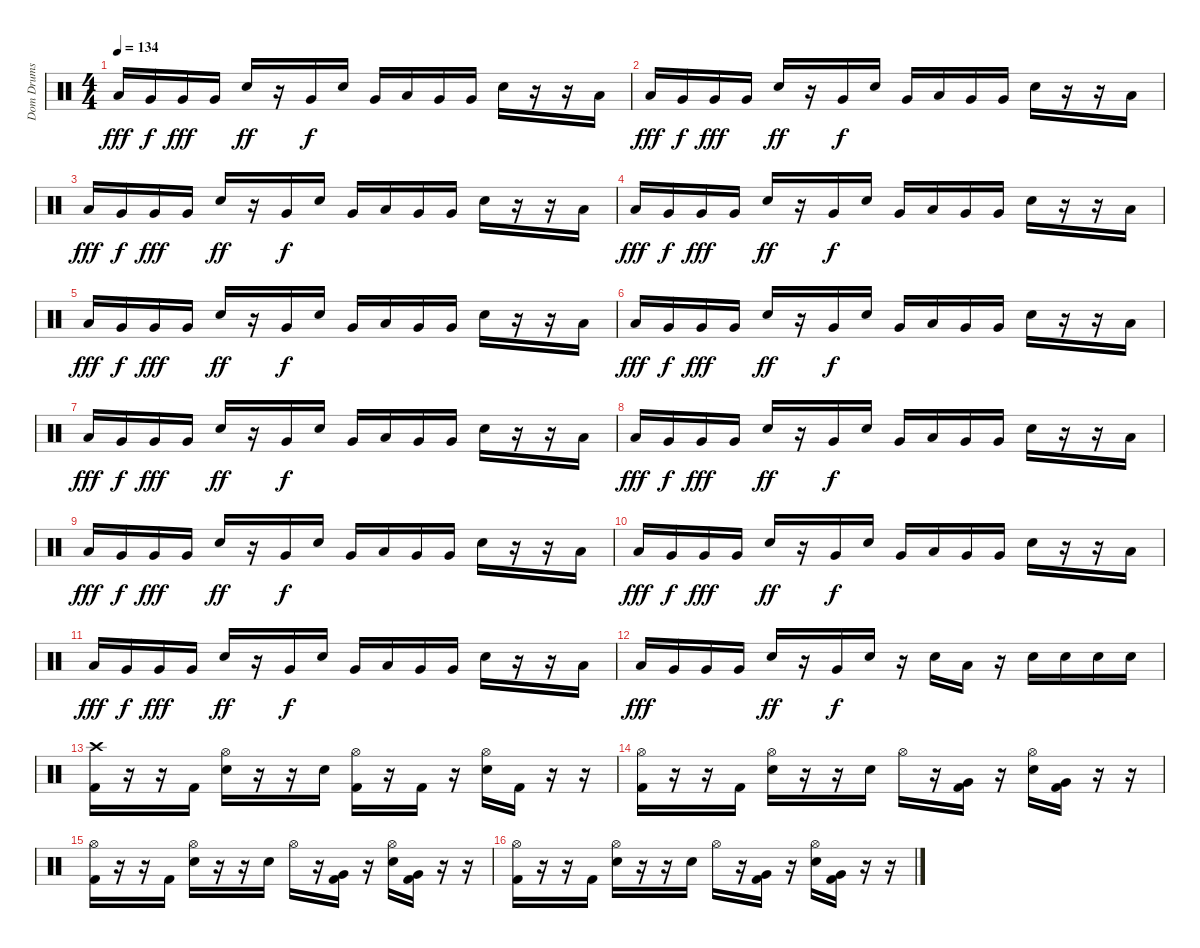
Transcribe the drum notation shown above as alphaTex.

\track ("Dom Drums" "Dom Drums") {instrument percussion}
\staff {score}
\articulation defaults
\ts (4 4)
\tempo 134
\clef neutral
\ks c "Low Tom (hit)".16{dy fff} "Very Low Tom (hit)".16{dy f} "Very Low Tom (hit)".16{dy fff} "Very Low Tom (hit)".16 "Electric Snare (hit)".16{dy ff}
r.16 "Very Low Tom (hit)".16{dy f} "Electric Snare (hit)".16 "Very Low Tom (hit)".16 "Low Tom (hit)".16 "Very Low Tom (hit)".16 "Very Low Tom (hit)".16 "Electric Snare (hit)".16 r.16 r.16 "Low Tom (hit)".16 |
"Low Tom (hit)".16{dy fff} "Very Low Tom (hit)".16{dy f} "Very Low Tom (hit)".16{dy fff} "Very Low Tom (hit)".16 "Electric Snare (hit)".16{dy ff} r.16 "Very Low Tom (hit)".16{dy f} "Electric Snare (hit)".16 "Very Low Tom (hit)".16 "Low Tom (hit)".16 "Very Low Tom (hit)".16 "Very Low Tom (hit)".16 "Electric Snare (hit)".16 r.16 r.16 "Low Tom (hit)".16 |
"Low Tom (hit)".16{dy fff} "Very Low Tom (hit)".16{dy f} "Very Low Tom (hit)".16{dy fff} "Very Low Tom (hit)".16 "Electric Snare (hit)".16{dy ff} r.16 "Very Low Tom (hit)".16{dy f} "Electric Snare (hit)".16 "Very Low Tom (hit)".16 "Low Tom (hit)".16 "Very Low Tom (hit)".16 "Very Low Tom (hit)".16 "Electric Snare (hit)".16 r.16 r.16 "Low Tom (hit)".16 |
"Low Tom (hit)".16{dy fff} "Very Low Tom (hit)".16{dy f} "Very Low Tom (hit)".16{dy fff} "Very Low Tom (hit)".16 "Electric Snare (hit)".16{dy ff} r.16 "Very Low Tom (hit)".16{dy f} "Electric Snare (hit)".16 "Very Low Tom (hit)".16 "Low Tom (hit)".16 "Very Low Tom (hit)".16 "Very Low Tom (hit)".16 "Electric Snare (hit)".16 r.16 r.16 "Low Tom (hit)".16 |
"Low Tom (hit)".16{dy fff} "Very Low Tom (hit)".16{dy f} "Very Low Tom (hit)".16{dy fff} "Very Low Tom (hit)".16 "Electric Snare (hit)".16{dy ff} r.16 "Very Low Tom (hit)".16{dy f} "Electric Snare (hit)".16 "Very Low Tom (hit)".16 "Low Tom (hit)".16 "Very Low Tom (hit)".16 "Very Low Tom (hit)".16 "Electric Snare (hit)".16 r.16 r.16 "Low Tom (hit)".16 |
"Low Tom (hit)".16{dy fff} "Very Low Tom (hit)".16{dy f} "Very Low Tom (hit)".16{dy fff} "Very Low Tom (hit)".16 "Electric Snare (hit)".16{dy ff} r.16 "Very Low Tom (hit)".16{dy f} "Electric Snare (hit)".16 "Very Low Tom (hit)".16 "Low Tom (hit)".16 "Very Low Tom (hit)".16 "Very Low Tom (hit)".16 "Electric Snare (hit)".16 r.16 r.16 "Low Tom (hit)".16 |
"Low Tom (hit)".16{dy fff} "Very Low Tom (hit)".16{dy f} "Very Low Tom (hit)".16{dy fff} "Very Low Tom (hit)".16 "Electric Snare (hit)".16{dy ff} r.16 "Very Low Tom (hit)".16{dy f} "Electric Snare (hit)".16 "Very Low Tom (hit)".16 "Low Tom (hit)".16 "Very Low Tom (hit)".16 "Very Low Tom (hit)".16 "Electric Snare (hit)".16 r.16 r.16 "Low Tom (hit)".16 |
"Low Tom (hit)".16{dy fff} "Very Low Tom (hit)".16{dy f} "Very Low Tom (hit)".16{dy fff} "Very Low Tom (hit)".16 "Electric Snare (hit)".16{dy ff} r.16 "Very Low Tom (hit)".16{dy f} "Electric Snare (hit)".16 "Very Low Tom (hit)".16 "Low Tom (hit)".16 "Very Low Tom (hit)".16 "Very Low Tom (hit)".16 "Electric Snare (hit)".16 r.16 r.16 "Low Tom (hit)".16 |
"Low Tom (hit)".16{dy fff} "Very Low Tom (hit)".16{dy f} "Very Low Tom (hit)".16{dy fff} "Very Low Tom (hit)".16 "Electric Snare (hit)".16{dy ff} r.16 "Very Low Tom (hit)".16{dy f} "Electric Snare (hit)".16 "Very Low Tom (hit)".16 "Low Tom (hit)".16 "Very Low Tom (hit)".16 "Very Low Tom (hit)".16 "Electric Snare (hit)".16 r.16 r.16 "Low Tom (hit)".16 |
"Low Tom (hit)".16{dy fff} "Very Low Tom (hit)".16{dy f} "Very Low Tom (hit)".16{dy fff} "Very Low Tom (hit)".16 "Electric Snare (hit)".16{dy ff} r.16 "Very Low Tom (hit)".16{dy f} "Electric Snare (hit)".16 "Very Low Tom (hit)".16 "Low Tom (hit)".16 "Very Low Tom (hit)".16 "Very Low Tom (hit)".16 "Electric Snare (hit)".16 r.16 r.16 "Low Tom (hit)".16 |
"Low Tom (hit)".16{dy fff} "Very Low Tom (hit)".16{dy f} "Very Low Tom (hit)".16{dy fff} "Very Low Tom (hit)".16 "Electric Snare (hit)".16{dy ff} r.16 "Very Low Tom (hit)".16{dy f} "Electric Snare (hit)".16 "Very Low Tom (hit)".16 "Low Tom (hit)".16 "Very Low Tom (hit)".16 "Very Low Tom (hit)".16 "Electric Snare (hit)".16 r.16 r.16 "Low Tom (hit)".16 |
"Low Tom (hit)".16{dy fff} "Very Low Tom (hit)".16 "Very Low Tom (hit)".16 "Very Low Tom (hit)".16 "Electric Snare (hit)".16{dy ff} r.16 "Very Low Tom (hit)".16{dy f} "Electric Snare (hit)".16 r.16 "Electric Snare (hit)".16 "Low Tom (hit)".16 r.16 "Electric Snare (hit)".16 "Electric Snare (hit)".16 "Electric Snare (hit)".16 "Electric Snare (hit)".16 |
("Crash high (hit)" "Kick (hit) 2").16 r.16 r.16 "Kick (hit) 2".16 ("Hi-Hat (open)" "Electric Snare (hit)").16 r.16 r.16 "Electric Snare (hit)".16 ("Hi-Hat (open)" "Kick (hit) 2").16 r.16 "Kick (hit) 2".16 r.16 ("Hi-Hat (open)" "Electric Snare (hit)").16 "Kick (hit) 2".16 r.16 r.16 |
("Hi-Hat (open)" "Kick (hit) 2").16 r.16 r.16 "Kick (hit) 2".16 ("Hi-Hat (open)" "Electric Snare (hit)").16 r.16 r.16 "Electric Snare (hit)".16 "Hi-Hat (open)".16 r.16 ("Very Low Tom (hit)" "Kick (hit) 2").16 r.16 ("Hi-Hat (open)" "Electric Snare (hit)").16 ("Very Low Tom (hit)" "Kick (hit) 2").16 r.16 r.16 |
("Hi-Hat (open)" "Kick (hit) 2").16 r.16 r.16 "Kick (hit) 2".16 ("Hi-Hat (open)" "Electric Snare (hit)").16 r.16 r.16 "Electric Snare (hit)".16 "Hi-Hat (open)".16 r.16 ("Very Low Tom (hit)" "Kick (hit) 2").16 r.16 ("Hi-Hat (open)" "Electric Snare (hit)").16 ("Very Low Tom (hit)" "Kick (hit) 2").16 r.16 r.16 |
("Hi-Hat (open)" "Kick (hit) 2").16 r.16 r.16 "Kick (hit) 2".16 ("Hi-Hat (open)" "Electric Snare (hit)").16 r.16 r.16 "Electric Snare (hit)".16 "Hi-Hat (open)".16 r.16 ("Very Low Tom (hit)" "Kick (hit) 2").16 r.16 ("Hi-Hat (open)" "Electric Snare (hit)").16 ("Very Low Tom (hit)" "Kick (hit) 2").16 r.16 r.16
